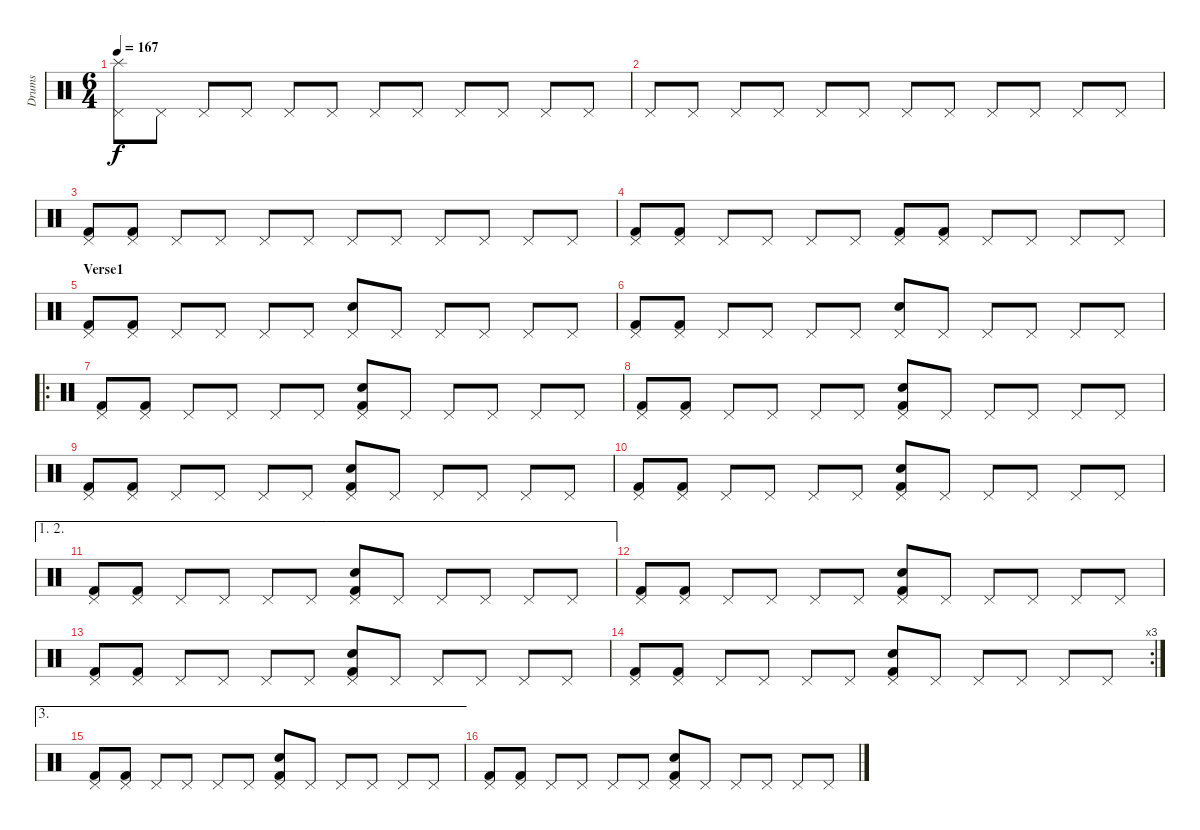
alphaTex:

\track ("Drums" "Drums") {instrument percussion}
\staff {score}
\articulation defaults
\ts (6 4)
\tempo 167
\clef neutral
\ks c
("Splash (hit)" "Pedal Hi-Hat (hit)").8{dy f} "Pedal Hi-Hat (hit)".8 "Pedal Hi-Hat (hit)".8 "Pedal Hi-Hat (hit)".8 "Pedal Hi-Hat (hit)".8 "Pedal Hi-Hat (hit)".8 "Pedal Hi-Hat (hit)".8 "Pedal Hi-Hat (hit)".8 "Pedal Hi-Hat (hit)".8 "Pedal Hi-Hat (hit)".8 "Pedal Hi-Hat (hit)".8 "Pedal Hi-Hat (hit)".8 |
"Pedal Hi-Hat (hit)".8 "Pedal Hi-Hat (hit)".8 "Pedal Hi-Hat (hit)".8 "Pedal Hi-Hat (hit)".8 "Pedal Hi-Hat (hit)".8 "Pedal Hi-Hat (hit)".8 "Pedal Hi-Hat (hit)".8 "Pedal Hi-Hat (hit)".8 "Pedal Hi-Hat (hit)".8 "Pedal Hi-Hat (hit)".8 "Pedal Hi-Hat (hit)".8 "Pedal Hi-Hat (hit)".8 |
("Pedal Hi-Hat (hit)" "Kick (hit) 2").8 ("Pedal Hi-Hat (hit)" "Kick (hit) 2").8 "Pedal Hi-Hat (hit)".8 "Pedal Hi-Hat (hit)".8 "Pedal Hi-Hat (hit)".8 "Pedal Hi-Hat (hit)".8 "Pedal Hi-Hat (hit)".8 "Pedal Hi-Hat (hit)".8 "Pedal Hi-Hat (hit)".8 "Pedal Hi-Hat (hit)".8 "Pedal Hi-Hat (hit)".8 "Pedal Hi-Hat (hit)".8 |
("Pedal Hi-Hat (hit)" "Kick (hit) 2").8 ("Pedal Hi-Hat (hit)" "Kick (hit) 2").8 "Pedal Hi-Hat (hit)".8 "Pedal Hi-Hat (hit)".8 "Pedal Hi-Hat (hit)".8 "Pedal Hi-Hat (hit)".8 ("Pedal Hi-Hat (hit)" "Kick (hit) 2").8 ("Pedal Hi-Hat (hit)" "Kick (hit) 2").8 "Pedal Hi-Hat (hit)".8 "Pedal Hi-Hat (hit)".8 "Pedal Hi-Hat (hit)".8 "Pedal Hi-Hat (hit)".8 |
\section ("" "Verse1")
("Pedal Hi-Hat (hit)" "Kick (hit) 2").8 ("Pedal Hi-Hat (hit)" "Kick (hit) 2").8 "Pedal Hi-Hat (hit)".8 "Pedal Hi-Hat (hit)".8 "Pedal Hi-Hat (hit)".8 "Pedal Hi-Hat (hit)".8 ("Pedal Hi-Hat (hit)" "Electric Snare (hit)").8 "Pedal Hi-Hat (hit)".8 "Pedal Hi-Hat (hit)".8 "Pedal Hi-Hat (hit)".8 "Pedal Hi-Hat (hit)".8 "Pedal Hi-Hat (hit)".8 |
("Pedal Hi-Hat (hit)" "Kick (hit) 2").8 ("Pedal Hi-Hat (hit)" "Kick (hit) 2").8 "Pedal Hi-Hat (hit)".8 "Pedal Hi-Hat (hit)".8 "Pedal Hi-Hat (hit)".8 "Pedal Hi-Hat (hit)".8 ("Pedal Hi-Hat (hit)" "Electric Snare (hit)").8 "Pedal Hi-Hat (hit)".8 "Pedal Hi-Hat (hit)".8 "Pedal Hi-Hat (hit)".8 "Pedal Hi-Hat (hit)".8 "Pedal Hi-Hat (hit)".8 |
\ro
("Pedal Hi-Hat (hit)" "Kick (hit) 2").8 ("Pedal Hi-Hat (hit)" "Kick (hit) 2").8 "Pedal Hi-Hat (hit)".8 "Pedal Hi-Hat (hit)".8 "Pedal Hi-Hat (hit)".8 "Pedal Hi-Hat (hit)".8 ("Pedal Hi-Hat (hit)" "Electric Snare (hit)" "Kick (hit) 2").8 "Pedal Hi-Hat (hit)".8 "Pedal Hi-Hat (hit)".8 "Pedal Hi-Hat (hit)".8 "Pedal Hi-Hat (hit)".8 "Pedal Hi-Hat (hit)".8 |
("Pedal Hi-Hat (hit)" "Kick (hit) 2").8 ("Pedal Hi-Hat (hit)" "Kick (hit) 2").8 "Pedal Hi-Hat (hit)".8 "Pedal Hi-Hat (hit)".8 "Pedal Hi-Hat (hit)".8 "Pedal Hi-Hat (hit)".8 ("Pedal Hi-Hat (hit)" "Electric Snare (hit)" "Kick (hit) 2").8 "Pedal Hi-Hat (hit)".8 "Pedal Hi-Hat (hit)".8 "Pedal Hi-Hat (hit)".8 "Pedal Hi-Hat (hit)".8 "Pedal Hi-Hat (hit)".8 |
("Pedal Hi-Hat (hit)" "Kick (hit) 2").8 ("Pedal Hi-Hat (hit)" "Kick (hit) 2").8 "Pedal Hi-Hat (hit)".8 "Pedal Hi-Hat (hit)".8 "Pedal Hi-Hat (hit)".8 "Pedal Hi-Hat (hit)".8 ("Pedal Hi-Hat (hit)" "Electric Snare (hit)" "Kick (hit) 2").8 "Pedal Hi-Hat (hit)".8 "Pedal Hi-Hat (hit)".8 "Pedal Hi-Hat (hit)".8 "Pedal Hi-Hat (hit)".8 "Pedal Hi-Hat (hit)".8 |
("Pedal Hi-Hat (hit)" "Kick (hit) 2").8 ("Pedal Hi-Hat (hit)" "Kick (hit) 2").8 "Pedal Hi-Hat (hit)".8 "Pedal Hi-Hat (hit)".8 "Pedal Hi-Hat (hit)".8 "Pedal Hi-Hat (hit)".8 ("Pedal Hi-Hat (hit)" "Electric Snare (hit)" "Kick (hit) 2").8 "Pedal Hi-Hat (hit)".8 "Pedal Hi-Hat (hit)".8 "Pedal Hi-Hat (hit)".8 "Pedal Hi-Hat (hit)".8 "Pedal Hi-Hat (hit)".8 |
\ae (1 2)
("Pedal Hi-Hat (hit)" "Kick (hit) 2").8 ("Pedal Hi-Hat (hit)" "Kick (hit) 2").8 "Pedal Hi-Hat (hit)".8 "Pedal Hi-Hat (hit)".8 "Pedal Hi-Hat (hit)".8 "Pedal Hi-Hat (hit)".8 ("Pedal Hi-Hat (hit)" "Electric Snare (hit)" "Kick (hit) 2").8 "Pedal Hi-Hat (hit)".8 "Pedal Hi-Hat (hit)".8 "Pedal Hi-Hat (hit)".8 "Pedal Hi-Hat (hit)".8 "Pedal Hi-Hat (hit)".8 |
("Pedal Hi-Hat (hit)" "Kick (hit) 2").8 ("Pedal Hi-Hat (hit)" "Kick (hit) 2").8 "Pedal Hi-Hat (hit)".8 "Pedal Hi-Hat (hit)".8 "Pedal Hi-Hat (hit)".8 "Pedal Hi-Hat (hit)".8 ("Pedal Hi-Hat (hit)" "Electric Snare (hit)" "Kick (hit) 2").8 "Pedal Hi-Hat (hit)".8 "Pedal Hi-Hat (hit)".8 "Pedal Hi-Hat (hit)".8 "Pedal Hi-Hat (hit)".8 "Pedal Hi-Hat (hit)".8 |
("Pedal Hi-Hat (hit)" "Kick (hit) 2").8 ("Pedal Hi-Hat (hit)" "Kick (hit) 2").8 "Pedal Hi-Hat (hit)".8 "Pedal Hi-Hat (hit)".8 "Pedal Hi-Hat (hit)".8 "Pedal Hi-Hat (hit)".8 ("Pedal Hi-Hat (hit)" "Electric Snare (hit)" "Kick (hit) 2").8 "Pedal Hi-Hat (hit)".8 "Pedal Hi-Hat (hit)".8 "Pedal Hi-Hat (hit)".8 "Pedal Hi-Hat (hit)".8 "Pedal Hi-Hat (hit)".8 |
\rc 3
("Pedal Hi-Hat (hit)" "Kick (hit) 2").8 ("Pedal Hi-Hat (hit)" "Kick (hit) 2").8 "Pedal Hi-Hat (hit)".8 "Pedal Hi-Hat (hit)".8 "Pedal Hi-Hat (hit)".8 "Pedal Hi-Hat (hit)".8 ("Pedal Hi-Hat (hit)" "Electric Snare (hit)" "Kick (hit) 2").8 "Pedal Hi-Hat (hit)".8 "Pedal Hi-Hat (hit)".8 "Pedal Hi-Hat (hit)".8 "Pedal Hi-Hat (hit)".8 "Pedal Hi-Hat (hit)".8 |
\ae 3
("Pedal Hi-Hat (hit)" "Kick (hit) 2").8 ("Pedal Hi-Hat (hit)" "Kick (hit) 2").8 "Pedal Hi-Hat (hit)".8 "Pedal Hi-Hat (hit)".8 "Pedal Hi-Hat (hit)".8 "Pedal Hi-Hat (hit)".8 ("Pedal Hi-Hat (hit)" "Electric Snare (hit)" "Kick (hit) 2").8 "Pedal Hi-Hat (hit)".8 "Pedal Hi-Hat (hit)".8 "Pedal Hi-Hat (hit)".8 "Pedal Hi-Hat (hit)".8 "Pedal Hi-Hat (hit)".8 |
("Pedal Hi-Hat (hit)" "Kick (hit) 2").8 ("Pedal Hi-Hat (hit)" "Kick (hit) 2").8 "Pedal Hi-Hat (hit)".8 "Pedal Hi-Hat (hit)".8 "Pedal Hi-Hat (hit)".8 "Pedal Hi-Hat (hit)".8 ("Pedal Hi-Hat (hit)" "Electric Snare (hit)" "Kick (hit) 2").8 "Pedal Hi-Hat (hit)".8 "Pedal Hi-Hat (hit)".8 "Pedal Hi-Hat (hit)".8 "Pedal Hi-Hat (hit)".8 "Pedal Hi-Hat (hit)".8
